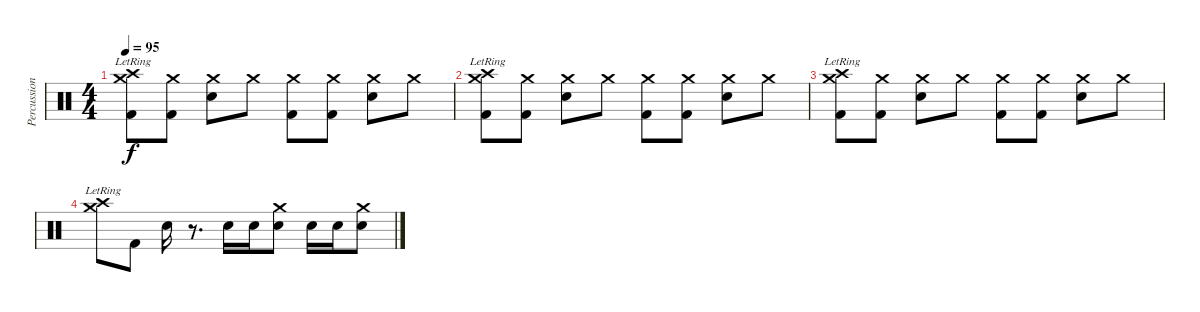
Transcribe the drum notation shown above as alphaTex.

\track ("Percussion" "Percussion") {instrument percussion}
\staff {score}
\articulation defaults
\ts (4 4)
\tempo 95
\clef neutral
\ks c
("Crash high (hit)"{lr} "Crash medium (hit)" "Kick (hit) 2").8{dy f} ("Crash medium (hit)" "Kick (hit) 2").8 ("Crash medium (hit)" "Electric Snare (hit)").8 "Crash medium (hit)".8 ("Crash medium (hit)" "Kick (hit) 2").8 ("Crash medium (hit)" "Kick (hit) 2").8 ("Crash medium (hit)" "Electric Snare (hit)").8 "Crash medium (hit)".8 |
("Crash high (hit)"{lr} "Crash medium (hit)" "Kick (hit) 2").8 ("Crash medium (hit)" "Kick (hit) 2").8 ("Crash medium (hit)" "Electric Snare (hit)").8 "Crash medium (hit)".8 ("Crash medium (hit)" "Kick (hit) 2").8 ("Crash medium (hit)" "Kick (hit) 2").8 ("Crash medium (hit)" "Electric Snare (hit)").8 "Crash medium (hit)".8 |
("Crash high (hit)"{lr} "Crash medium (hit)" "Kick (hit) 2").8 ("Crash medium (hit)" "Kick (hit) 2").8 ("Crash medium (hit)" "Electric Snare (hit)").8 "Crash medium (hit)".8 ("Crash medium (hit)" "Kick (hit) 2").8 ("Crash medium (hit)" "Kick (hit) 2").8 ("Crash medium (hit)" "Electric Snare (hit)").8 "Crash medium (hit)".8 |
("Crash high (hit)"{lr} "Crash medium (hit)"{lr}).8 "Kick (hit) 2".8 "Electric Snare (hit)".16 r.8{d} "Electric Snare (hit)".16 "Electric Snare (hit)".16 ("Crash medium (hit)" "Electric Snare (hit)").8 "Electric Snare (hit)".16 "Electric Snare (hit)".16 ("Crash medium (hit)" "Electric Snare (hit)").8
